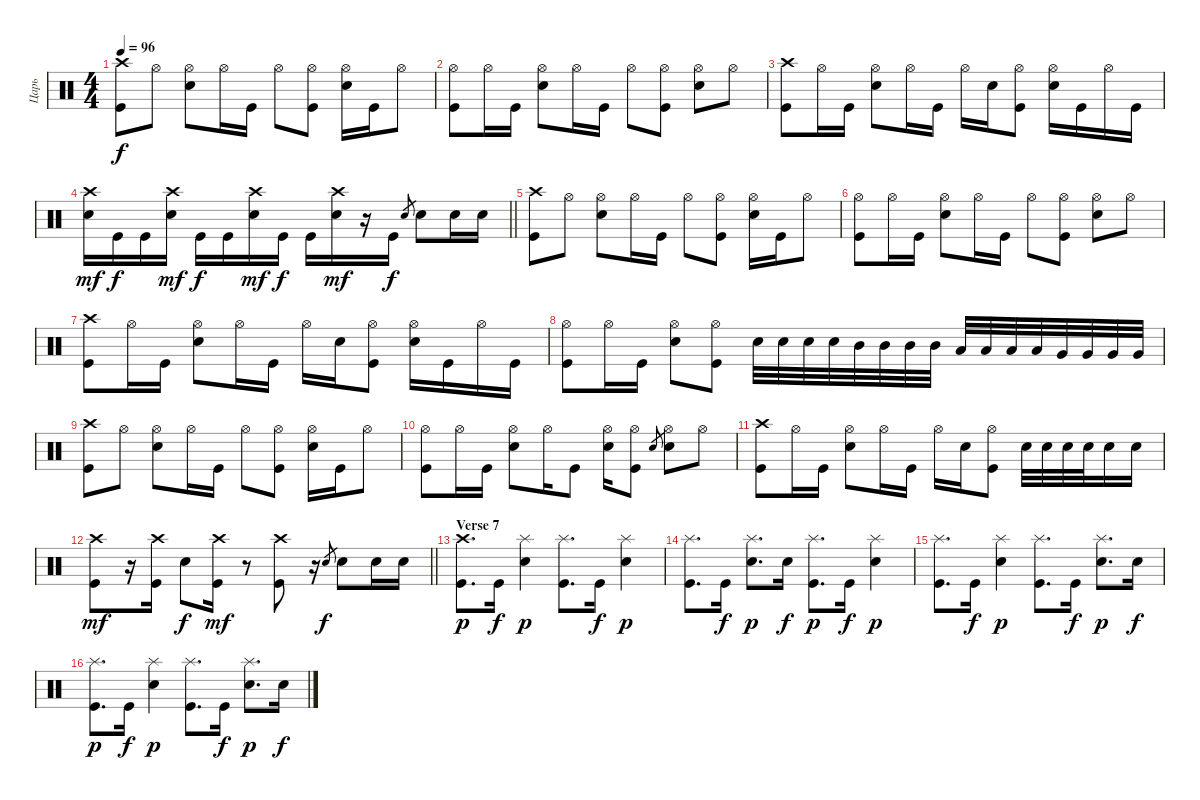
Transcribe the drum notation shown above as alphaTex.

\track ("Царь" "Царь") {instrument percussion}
\staff {score}
\articulation defaults
\ts (4 4)
\tempo 96
\clef neutral
\ks c
("Crash high (hit)" "Kick (hit)").8{dy f} "Hi-Hat (open)".8 ("Electric Snare (hit)" "Hi-Hat (open)").8 "Hi-Hat (open)".16 "Kick (hit)".16 "Hi-Hat (open)".8 ("Kick (hit)" "Hi-Hat (open)").8 ("Electric Snare (hit)" "Hi-Hat (open)").16 "Kick (hit)".16 "Hi-Hat (open)".8 |
("Kick (hit)" "Hi-Hat (open)").8 "Hi-Hat (open)".16 "Kick (hit)".16 ("Electric Snare (hit)" "Hi-Hat (open)").8 "Hi-Hat (open)".16 "Kick (hit)".16 "Hi-Hat (open)".8 ("Kick (hit)" "Hi-Hat (open)").8 ("Electric Snare (hit)" "Hi-Hat (open)").8 "Hi-Hat (open)".8 |
("Crash high (hit)" "Kick (hit)").8 "Hi-Hat (open)".16 "Kick (hit)".16 ("Electric Snare (hit)" "Hi-Hat (open)").8 "Hi-Hat (open)".16 "Kick (hit)".16 "Hi-Hat (open)".16 "Electric Snare (hit)".16 ("Kick (hit)" "Hi-Hat (open)").8 ("Electric Snare (hit)" "Hi-Hat (open)").16 "Kick (hit)".16 "Hi-Hat (open)".16 "Kick (hit)".16 |
\barLineRight lightlight
("Electric Snare (hit)" "Crash high (hit)").16{dy mf} "Kick (hit)".16{dy f} "Kick (hit)".16 ("Electric Snare (hit)" "Crash high (hit)").16{dy mf} "Kick (hit)".16{dy f} "Kick (hit)".16 ("Electric Snare (hit)" "Crash high (hit)").16{dy mf} "Kick (hit)".16{dy f} "Kick (hit)".16 ("Electric Snare (hit)" "Crash high (hit)").16{dy mf} r.16 "Kick (hit)".16{dy f} "Electric Snare (hit)".8{gr} "Electric Snare (hit)".8 "Electric Snare (hit)".16 "Electric Snare (hit)".16 |
("Crash high (hit)" "Kick (hit)").8 "Hi-Hat (open)".8 ("Electric Snare (hit)" "Hi-Hat (open)").8 "Hi-Hat (open)".16 "Kick (hit)".16 "Hi-Hat (open)".8 ("Kick (hit)" "Hi-Hat (open)").8 ("Electric Snare (hit)" "Hi-Hat (open)").16 "Kick (hit)".16 "Hi-Hat (open)".8 |
("Kick (hit)" "Hi-Hat (open)").8 "Hi-Hat (open)".16 "Kick (hit)".16 ("Electric Snare (hit)" "Hi-Hat (open)").8 "Hi-Hat (open)".16 "Kick (hit)".16 "Hi-Hat (open)".8 ("Kick (hit)" "Hi-Hat (open)").8 ("Electric Snare (hit)" "Hi-Hat (open)").8 "Hi-Hat (open)".8 |
("Crash high (hit)" "Kick (hit)").8 "Hi-Hat (open)".16 "Kick (hit)".16 ("Electric Snare (hit)" "Hi-Hat (open)").8 "Hi-Hat (open)".16 "Kick (hit)".16 "Hi-Hat (open)".16 "Electric Snare (hit)".16 ("Kick (hit)" "Hi-Hat (open)").8 ("Electric Snare (hit)" "Hi-Hat (open)").16 "Kick (hit)".16 "Hi-Hat (open)".16 "Kick (hit)".16 |
("Kick (hit)" "Hi-Hat (open)").8 "Hi-Hat (open)".16 "Kick (hit)".16 ("Electric Snare (hit)" "Hi-Hat (open)").8 ("Kick (hit)" "Hi-Hat (open)").8 "Electric Snare (hit)".32 "Electric Snare (hit)".32 "Electric Snare (hit)".32 "Electric Snare (hit)".32 "Mid Tom (hit)".32 "Mid Tom (hit)".32 "Mid Tom (hit)".32 "Mid Tom (hit)".32 "Low Tom (hit)".32 "Low Tom (hit)".32 "Low Tom (hit)".32 "Low Tom (hit)".32 "Very Low Tom (hit)".32 "Very Low Tom (hit)".32 "Very Low Tom (hit)".32 "Very Low Tom (hit)".32 |
("Crash high (hit)" "Kick (hit)").8 "Hi-Hat (open)".8 ("Electric Snare (hit)" "Hi-Hat (open)").8 "Hi-Hat (open)".16 "Kick (hit)".16 "Hi-Hat (open)".8 ("Kick (hit)" "Hi-Hat (open)").8 ("Electric Snare (hit)" "Hi-Hat (open)").16 "Kick (hit)".16 "Hi-Hat (open)".8 |
("Kick (hit)" "Hi-Hat (open)").8 "Hi-Hat (open)".16 "Kick (hit)".16 ("Electric Snare (hit)" "Hi-Hat (open)").8 "Hi-Hat (open)".16 "Kick (hit)".8 ("Electric Snare (hit)" "Hi-Hat (open)").16 ("Kick (hit)" "Hi-Hat (open)").8 "Electric Snare (hit)".8{gr} ("Electric Snare (hit)" "Hi-Hat (open)").8 "Hi-Hat (open)".8 |
("Crash high (hit)" "Kick (hit)").8 "Hi-Hat (open)".16 "Kick (hit)".16 ("Electric Snare (hit)" "Hi-Hat (open)").8 "Hi-Hat (open)".16 "Kick (hit)".16 "Hi-Hat (open)".16 "Electric Snare (hit)".16 ("Kick (hit)" "Hi-Hat (open)").8 "Electric Snare (hit)".32 "Electric Snare (hit)".32 "Electric Snare (hit)".32 "Electric Snare (hit)".32 "Electric Snare (hit)".16 "Electric Snare (hit)".16 |
\barLineRight lightlight
("Kick (hit)" "Crash high (hit)").8{dy mf} r.16 ("Kick (hit)" "Crash high (hit)").16 "Electric Snare (hit)".8{dy f} ("Kick (hit)" "Crash high (hit)").16{dy mf} r.8 ("Kick (hit)" "Crash high (hit)").8 r.16 "Electric Snare (hit)".8{gr dy f} "Electric Snare (hit)".8 "Electric Snare (hit)".16 "Electric Snare (hit)".16 |
\section ("" "Verse 7")
("Kick (hit)" "Crash high (hit)").8{d dy p} "Kick (hit)".16{dy f} ("Electric Snare (hit)" "Splash (hit)").4{dy p} ("Kick (hit)" "Splash (hit)").8{d} "Kick (hit)".16{dy f} ("Electric Snare (hit)" "Splash (hit)").4{dy p} |
("Kick (hit)" "Splash (hit)").8{d} "Kick (hit)".16{dy f} ("Electric Snare (hit)" "Splash (hit)").8{d dy p} "Electric Snare (hit)".16{dy f} ("Kick (hit)" "Splash (hit)").8{d dy p} "Kick (hit)".16{dy f} ("Electric Snare (hit)" "Splash (hit)").4{dy p} |
("Kick (hit)" "Splash (hit)").8{d} "Kick (hit)".16{dy f} ("Electric Snare (hit)" "Splash (hit)").4{dy p} ("Kick (hit)" "Splash (hit)").8{d} "Kick (hit)".16{dy f} ("Electric Snare (hit)" "Splash (hit)").8{d dy p} "Electric Snare (hit)".16{dy f} |
("Kick (hit)" "Splash (hit)").8{d dy p} "Kick (hit)".16{dy f} ("Electric Snare (hit)" "Splash (hit)").4{dy p} ("Kick (hit)" "Splash (hit)").8{d} "Kick (hit)".16{dy f} ("Electric Snare (hit)" "Splash (hit)").8{d dy p} "Electric Snare (hit)".16{dy f}
